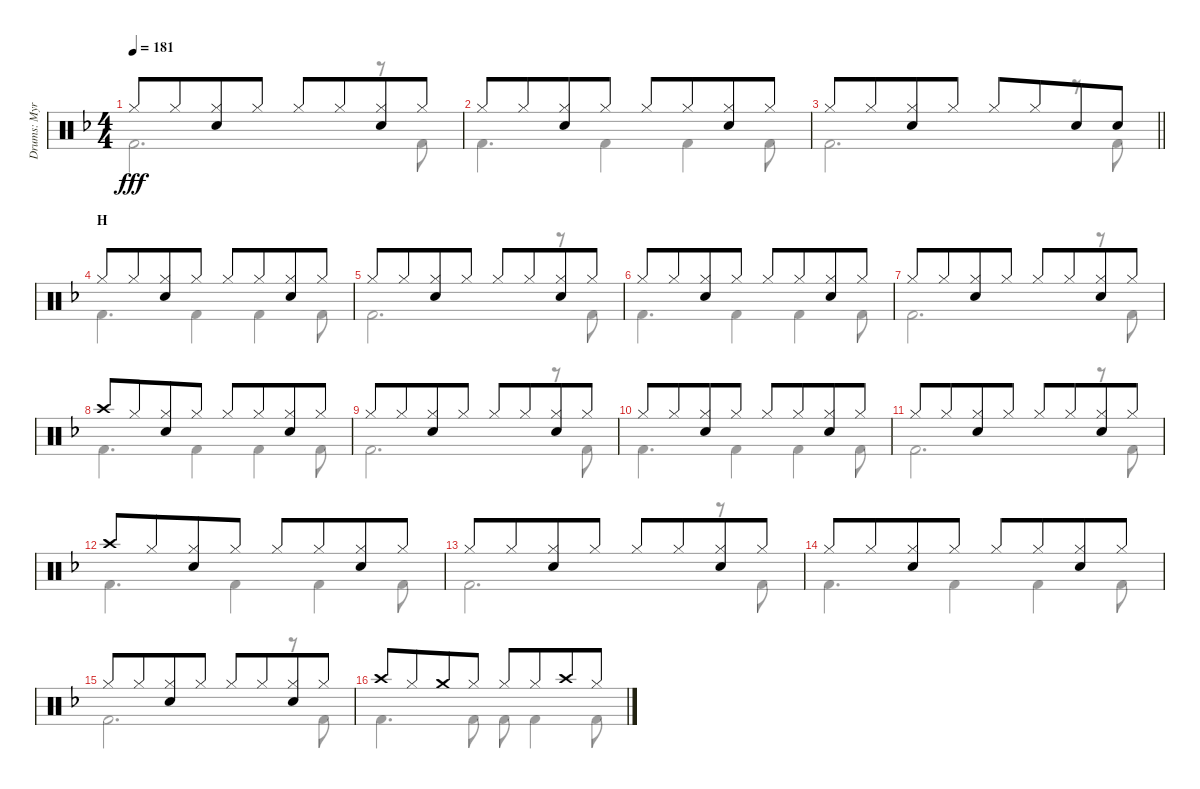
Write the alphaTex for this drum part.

\track ("Drums: Myron" "Drums: Myr") {instrument percussion}
\staff {score}
\articulation defaults
\voice
\ts (4 4)
\tempo 181
\clef neutral
\ks f "Hi-Hat (closed)".8{dy fff} "Hi-Hat (closed)".8{beam merge}
("Hi-Hat (closed)" "Electric Snare (hit)").8 "Hi-Hat (closed)".8 "Hi-Hat (closed)".8 "Hi-Hat (closed)".8{beam merge} ("Hi-Hat (closed)" "Electric Snare (hit)").8 "Hi-Hat (closed)".8 |
"Hi-Hat (closed)".8 "Hi-Hat (closed)".8{beam merge} ("Hi-Hat (closed)" "Electric Snare (hit)").8 "Hi-Hat (closed)".8 "Hi-Hat (closed)".8 "Hi-Hat (closed)".8{beam merge} ("Hi-Hat (closed)" "Electric Snare (hit)").8 "Hi-Hat (closed)".8 |
\barLineRight lightlight "Hi-Hat (closed)".8 "Hi-Hat (closed)".8{beam merge}
("Hi-Hat (closed)" "Electric Snare (hit)").8 "Hi-Hat (closed)".8 "Hi-Hat (closed)".8 "Hi-Hat (closed)".8{beam merge} "Electric Snare (hit)".8 "Electric Snare (hit)".8 |
\section ("" "H")
"Hi-Hat (closed)".8 "Hi-Hat (closed)".8{beam merge} ("Hi-Hat (closed)" "Electric Snare (hit)").8 "Hi-Hat (closed)".8 "Hi-Hat (closed)".8 "Hi-Hat (closed)".8{beam merge} ("Hi-Hat (closed)" "Electric Snare (hit)").8 "Hi-Hat (closed)".8 |
"Hi-Hat (closed)".8 "Hi-Hat (closed)".8{beam merge} ("Hi-Hat (closed)" "Electric Snare (hit)").8 "Hi-Hat (closed)".8 "Hi-Hat (closed)".8 "Hi-Hat (closed)".8{beam merge} ("Hi-Hat (closed)" "Electric Snare (hit)").8 "Hi-Hat (closed)".8 |
"Hi-Hat (closed)".8 "Hi-Hat (closed)".8{beam merge} ("Hi-Hat (closed)" "Electric Snare (hit)").8 "Hi-Hat (closed)".8 "Hi-Hat (closed)".8 "Hi-Hat (closed)".8{beam merge} ("Hi-Hat (closed)" "Electric Snare (hit)").8 "Hi-Hat (closed)".8 |
"Hi-Hat (closed)".8 "Hi-Hat (closed)".8{beam merge} ("Hi-Hat (closed)" "Electric Snare (hit)").8 "Hi-Hat (closed)".8 "Hi-Hat (closed)".8 "Hi-Hat (closed)".8{beam merge} ("Hi-Hat (closed)" "Electric Snare (hit)").8 "Hi-Hat (closed)".8 |
"Crash high (hit)".8 "Hi-Hat (closed)".8{beam merge} ("Hi-Hat (closed)" "Electric Snare (hit)").8 "Hi-Hat (closed)".8 "Hi-Hat (closed)".8 "Hi-Hat (closed)".8{beam merge} ("Hi-Hat (closed)" "Electric Snare (hit)").8 "Hi-Hat (closed)".8 |
"Hi-Hat (closed)".8 "Hi-Hat (closed)".8{beam merge} ("Hi-Hat (closed)" "Electric Snare (hit)").8 "Hi-Hat (closed)".8 "Hi-Hat (closed)".8 "Hi-Hat (closed)".8{beam merge} ("Hi-Hat (closed)" "Electric Snare (hit)").8 "Hi-Hat (closed)".8 |
"Hi-Hat (closed)".8 "Hi-Hat (closed)".8{beam merge} ("Hi-Hat (closed)" "Electric Snare (hit)").8 "Hi-Hat (closed)".8 "Hi-Hat (closed)".8 "Hi-Hat (closed)".8{beam merge} ("Hi-Hat (closed)" "Electric Snare (hit)").8 "Hi-Hat (closed)".8 |
"Hi-Hat (closed)".8 "Hi-Hat (closed)".8{beam merge} ("Hi-Hat (closed)" "Electric Snare (hit)").8 "Hi-Hat (closed)".8 "Hi-Hat (closed)".8 "Hi-Hat (closed)".8{beam merge} ("Hi-Hat (closed)" "Electric Snare (hit)").8 "Hi-Hat (closed)".8 |
"Crash high (hit)".8 "Hi-Hat (closed)".8{beam merge} ("Hi-Hat (closed)" "Electric Snare (hit)").8 "Hi-Hat (closed)".8 "Hi-Hat (closed)".8 "Hi-Hat (closed)".8{beam merge} ("Hi-Hat (closed)" "Electric Snare (hit)").8 "Hi-Hat (closed)".8 |
"Hi-Hat (closed)".8 "Hi-Hat (closed)".8{beam merge} ("Hi-Hat (closed)" "Electric Snare (hit)").8 "Hi-Hat (closed)".8 "Hi-Hat (closed)".8 "Hi-Hat (closed)".8{beam merge} ("Hi-Hat (closed)" "Electric Snare (hit)").8 "Hi-Hat (closed)".8 |
"Hi-Hat (closed)".8 "Hi-Hat (closed)".8{beam merge} ("Hi-Hat (closed)" "Electric Snare (hit)").8 "Hi-Hat (closed)".8 "Hi-Hat (closed)".8 "Hi-Hat (closed)".8{beam merge} ("Hi-Hat (closed)" "Electric Snare (hit)").8 "Hi-Hat (closed)".8 |
"Hi-Hat (closed)".8 "Hi-Hat (closed)".8{beam merge} ("Hi-Hat (closed)" "Electric Snare (hit)").8 "Hi-Hat (closed)".8 "Hi-Hat (closed)".8 "Hi-Hat (closed)".8{beam merge} ("Hi-Hat (closed)" "Electric Snare (hit)").8 "Hi-Hat (closed)".8 |
"Crash high (hit)".8 "Hi-Hat (closed)".8{beam merge} "Crash medium (hit)".8 "Hi-Hat (closed)".8 "Hi-Hat (closed)".8 "Hi-Hat (closed)".8{beam merge} "Crash high (hit)".8 "Hi-Hat (closed)".8
\voice
\clef neutral
\ottava regular
\simile none
\ks f "Kick (hit) 2".2{d dy fff}
r.8 "Kick (hit) 2".8 |
"Kick (hit) 2".4{d} "Kick (hit) 2".4 "Kick (hit) 2".4 "Kick (hit) 2".8 |
\barLineRight lightlight "Kick (hit) 2".2{d}
r.8 "Kick (hit) 2".8 |
"Kick (hit) 2".4{d} "Kick (hit) 2".4 "Kick (hit) 2".4 "Kick (hit) 2".8 |
"Kick (hit) 2".2{d} r.8 "Kick (hit) 2".8 |
"Kick (hit) 2".4{d} "Kick (hit) 2".4 "Kick (hit) 2".4 "Kick (hit) 2".8 |
"Kick (hit) 2".2{d} r.8 "Kick (hit) 2".8 |
"Kick (hit) 2".4{d} "Kick (hit) 2".4 "Kick (hit) 2".4 "Kick (hit) 2".8 |
"Kick (hit) 2".2{d} r.8 "Kick (hit) 2".8 |
"Kick (hit) 2".4{d} "Kick (hit) 2".4 "Kick (hit) 2".4 "Kick (hit) 2".8 |
"Kick (hit) 2".2{d} r.8 "Kick (hit) 2".8 |
"Kick (hit) 2".4{d} "Kick (hit) 2".4 "Kick (hit) 2".4 "Kick (hit) 2".8 |
"Kick (hit) 2".2{d} r.8 "Kick (hit) 2".8 |
"Kick (hit) 2".4{d} "Kick (hit) 2".4 "Kick (hit) 2".4 "Kick (hit) 2".8 |
"Kick (hit) 2".2{d} r.8 "Kick (hit) 2".8 |
"Kick (hit) 2".4{d} "Kick (hit) 2".8 "Kick (hit) 2".8 "Kick (hit) 2".4 "Kick (hit) 2".8
